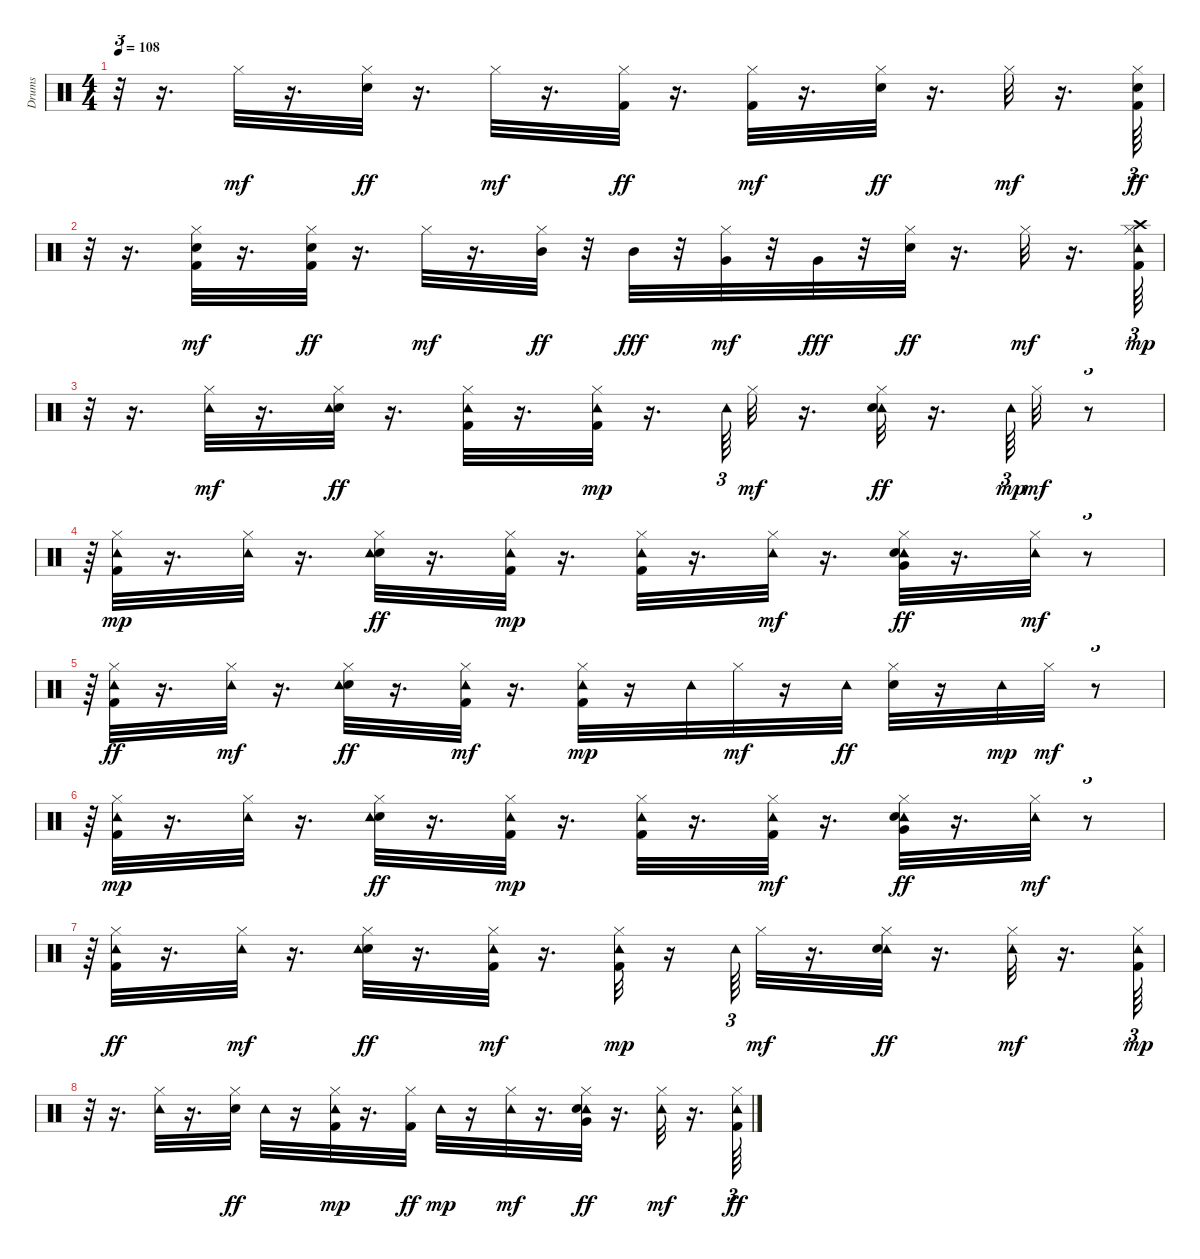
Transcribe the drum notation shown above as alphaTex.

\track ("Drums               " "Drums     ") {instrument percussion}
\staff {score}
\articulation defaults
\ts (4 4)
\tempo 108
\clef neutral
\ks c
r.32{tu (3 2) dy ff} r.16{d} "Hi-Hat (closed)".32{dy mf} r.16{d} ("Snare (hit) 2" "Hi-Hat (closed)").32{dy ff} r.16{d} "Hi-Hat (closed)".32{dy mf} r.16{d} ("Kick (hit) 2" "Hi-Hat (closed)").32{dy ff} r.16{d} ("Kick (hit) 2" "Hi-Hat (closed)").32{dy mf} r.16{d} ("Snare (hit) 2" "Hi-Hat (closed)").32{dy ff} r.16{d} "Hi-Hat (closed)".32{dy mf} r.16{d} ("Hi-Hat (closed)" "Kick (hit) 2" "Snare (hit) 2").64{tu (3 2) dy ff} |
r.32{tu (3 2)} r.16{d} ("Kick (hit) 2" "Snare (hit) 2" "Hi-Hat (closed)").32{dy mf} r.16{d} ("Kick (hit) 2" "Snare (hit) 2" "Hi-Hat (closed)").32{dy ff} r.16{d} "Hi-Hat (closed)".32{dy mf} r.16{d} ("Mid Tom (hit)" "Hi-Hat (closed)").32{dy ff} r.32 "Mid Tom (hit)".32{dy fff} r.32 ("Very Low Tom (hit)" "Hi-Hat (closed)").32{dy mf} r.32 "Very Low Tom (hit)".32{dy fff} r.32 ("Snare (hit) 2" "Hi-Hat (closed)").32{dy ff} r.16{d} "Hi-Hat (closed)".32{dy mf} r.16{d} ("Kick (hit) 2" "Hi-Hat (closed)" "Crash high (hit)" "Tambourine (hit)").64{tu (3 2) dy mp} |
r.32{tu (3 2)} r.16{d} ("Tambourine (hit)" "Hi-Hat (closed)").32{dy mf} r.16{d} ("Snare (hit) 2" "Hi-Hat (closed)" "Tambourine (hit)").32{dy ff} r.16{d} ("Hi-Hat (closed)" "Tambourine (hit)" "Kick (hit) 2").32 r.16{d} ("Kick (hit) 2" "Hi-Hat (closed)" "Tambourine (hit)").32{dy mp} r.16{d} "Tambourine (hit)".64{tu (3 2)} "Hi-Hat (closed)".32{dy mf} r.16{d} ("Tambourine (hit)" "Snare (hit) 2" "Hi-Hat (closed)").32{dy ff} r.16{d} "Tambourine (hit)".64{tu (3 2) dy mp} "Hi-Hat (closed)".32{dy mf} r.8{tu (3 2)} |
r.64{tu (3 2)} ("Kick (hit) 2" "Hi-Hat (closed)" "Tambourine (hit)").32{dy mp} r.16{d} ("Hi-Hat (closed)" "Tambourine (hit)").32 r.16{d} ("Snare (hit) 2" "Hi-Hat (closed)" "Tambourine (hit)").32{dy ff} r.16{d} ("Kick (hit) 2" "Hi-Hat (closed)" "Tambourine (hit)").32{dy mp} r.16{d} ("Kick (hit) 2" "Hi-Hat (closed)" "Tambourine (hit)").32 r.16{d} ("Tambourine (hit)" "Hi-Hat (closed)").32{dy mf} r.16{d} ("Tambourine (hit)" "Hi-Hat (closed)" "Snare (hit) 2" "Very Low Tom (hit)").32{dy ff} r.16{d} ("Tambourine (hit)" "Hi-Hat (closed)").32{dy mf} r.8{tu (3 2)} |
r.64{tu (3 2)} ("Kick (hit) 2" "Tambourine (hit)" "Hi-Hat (closed)").32{dy ff} r.16{d} ("Tambourine (hit)" "Hi-Hat (closed)").32{dy mf} r.16{d} ("Snare (hit) 2" "Hi-Hat (closed)" "Tambourine (hit)").32{dy ff} r.16{d} ("Tambourine (hit)" "Kick (hit) 2" "Hi-Hat (closed)").32{dy mf} r.16{d} ("Kick (hit) 2" "Hi-Hat (closed)" "Tambourine (hit)").32{dy mp} r.16 "Tambourine (hit)".32 "Hi-Hat (closed)".32{dy mf} r.16 "Tambourine (hit)".32{dy ff} ("Snare (hit) 2" "Hi-Hat (closed)").32 r.16 "Tambourine (hit)".32{dy mp} "Hi-Hat (closed)".32{dy mf} r.8{tu (3 2)} |
r.64{tu (3 2)} ("Kick (hit) 2" "Hi-Hat (closed)" "Tambourine (hit)").32{dy mp} r.16{d} ("Hi-Hat (closed)" "Tambourine (hit)").32 r.16{d} ("Snare (hit) 2" "Hi-Hat (closed)" "Tambourine (hit)").32{dy ff} r.16{d} ("Kick (hit) 2" "Hi-Hat (closed)" "Tambourine (hit)").32{dy mp} r.16{d} ("Kick (hit) 2" "Hi-Hat (closed)" "Tambourine (hit)").32 r.16{d} ("Tambourine (hit)" "Kick (hit) 2" "Hi-Hat (closed)").32{dy mf} r.16{d} ("Tambourine (hit)" "Snare (hit) 2" "Very Low Tom (hit)" "Hi-Hat (closed)").32{dy ff} r.16{d} ("Tambourine (hit)" "Hi-Hat (closed)").32{dy mf} r.8{tu (3 2)} |
r.64{tu (3 2)} ("Kick (hit) 2" "Tambourine (hit)" "Hi-Hat (closed)").32{dy ff} r.16{d} ("Tambourine (hit)" "Hi-Hat (closed)").32{dy mf} r.16{d} ("Snare (hit) 2" "Hi-Hat (closed)" "Tambourine (hit)").32{dy ff} r.16{d} ("Tambourine (hit)" "Kick (hit) 2" "Hi-Hat (closed)").32{dy mf} r.16{d} ("Hi-Hat (closed)" "Kick (hit) 2" "Tambourine (hit)").32{dy mp} r.16 "Tambourine (hit)".64{tu (3 2)} "Hi-Hat (closed)".32{dy mf} r.16{d} ("Tambourine (hit)" "Snare (hit) 2" "Hi-Hat (closed)").32{dy ff} r.16{d} ("Tambourine (hit)" "Hi-Hat (closed)").32{dy mf} r.16{d} ("Kick (hit) 2" "Hi-Hat (closed)" "Tambourine (hit)").64{tu (3 2) dy mp} |
r.32{tu (3 2)} r.16{d} ("Hi-Hat (closed)" "Tambourine (hit)").32 r.16{d} ("Snare (hit) 2" "Hi-Hat (closed)").32{dy ff} "Tambourine (hit)".32 r.16 ("Kick (hit) 2" "Hi-Hat (closed)" "Tambourine (hit)").32{dy mp} r.16{d} ("Kick (hit) 2" "Hi-Hat (closed)").32{dy ff} "Tambourine (hit)".32{dy mp} r.16 ("Tambourine (hit)" "Hi-Hat (closed)").32{dy mf} r.16{d} ("Tambourine (hit)" "Snare (hit) 2" "Hi-Hat (closed)" "Very Low Tom (hit)").32{dy ff} r.16{d} ("Tambourine (hit)" "Hi-Hat (closed)").32{dy mf} r.16{d} ("Kick (hit) 2" "Tambourine (hit)" "Hi-Hat (closed)").64{tu (3 2) dy ff}
